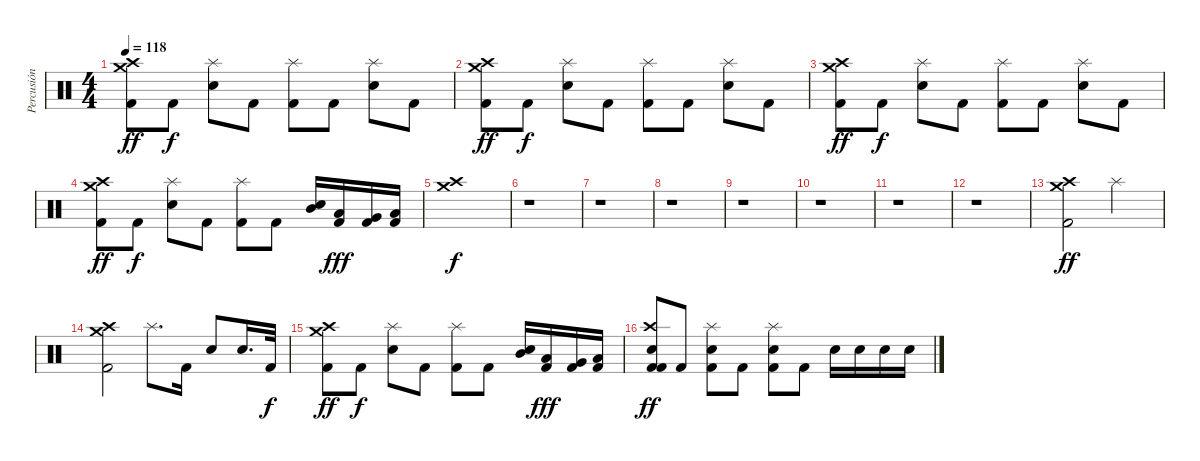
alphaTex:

\track ("Percusión" "Percusión") {instrument percussion}
\staff {score}
\articulation defaults
\ts (4 4)
\tempo 118
\clef neutral
\ks c
("Kick (hit) 2" "Crash medium (hit)" "Crash high (hit)").8{dy ff} "Kick (hit) 2".8{dy f} ("Snare (hit) 2" "Splash (hit)").8 "Kick (hit) 2".8 ("Kick (hit) 2" "Splash (hit)").8 "Kick (hit) 2".8 ("Snare (hit) 2" "Splash (hit)").8 "Kick (hit) 2".8 |
("Kick (hit) 2" "Crash medium (hit)" "Crash high (hit)").8{dy ff} "Kick (hit) 2".8{dy f} ("Snare (hit) 2" "Splash (hit)").8 "Kick (hit) 2".8 ("Kick (hit) 2" "Splash (hit)").8 "Kick (hit) 2".8 ("Snare (hit) 2" "Splash (hit)").8 "Kick (hit) 2".8 |
("Kick (hit) 2" "Crash medium (hit)" "Crash high (hit)").8{dy ff} "Kick (hit) 2".8{dy f} ("Snare (hit) 2" "Splash (hit)").8 "Kick (hit) 2".8 ("Kick (hit) 2" "Splash (hit)").8 "Kick (hit) 2".8 ("Snare (hit) 2" "Splash (hit)").8 "Kick (hit) 2".8 |
("Kick (hit) 2" "Crash medium (hit)" "Crash high (hit)").8{dy ff} "Kick (hit) 2".8{dy f} ("Snare (hit) 2" "Splash (hit)").8 "Kick (hit) 2".8 ("Kick (hit) 2" "Splash (hit)").8 "Kick (hit) 2".8 ("Snare (hit) 2" "Mid Tom (hit)").16 ("Low Tom (hit)" "Kick (hit) 2").16{dy fff} ("Very Low Tom (hit)" "Kick (hit) 2").16 ("Low Floor Tom (hit)" "Kick (hit) 2").16 |
("Crash medium (hit)" "Crash high (hit)").1{dy f} |
r.1 |
r.1 |
r.1 |
r.1 |
r.1 |
r.1 |
r.1 |
("Kick (hit) 2" "Crash medium (hit)" "Crash high (hit)").2{dy ff} "Splash (hit)".2 |
("Kick (hit) 2" "Crash medium (hit)" "Crash high (hit)").2 "Splash (hit)".8{d} "Kick (hit) 2".16 "Snare (hit) 2".8 "Snare (hit) 2".16{d} "Kick (hit) 2".32{dy f} |
("Kick (hit) 2" "Crash medium (hit)" "Crash high (hit)").8{dy ff} "Kick (hit) 2".8{dy f} ("Snare (hit) 2" "Splash (hit)").8 "Kick (hit) 2".8 ("Kick (hit) 2" "Splash (hit)").8 "Kick (hit) 2".8 ("Snare (hit) 2" "Mid Tom (hit)").16 ("Low Tom (hit)" "Kick (hit) 2").16{dy fff} ("Very Low Tom (hit)" "Kick (hit) 2").16 ("Low Floor Tom (hit)" "Kick (hit) 2").16 |
("Kick (hit) 2" "Snare (hit) 2" "Crash high (hit)" "Kick (hit) 2").8{dy ff} "Kick (hit) 2".8 ("Snare (hit) 2" "Splash (hit)" "Kick (hit) 2").8 "Kick (hit) 2".8 ("Snare (hit) 2" "Splash (hit)" "Kick (hit) 2").8 "Kick (hit) 2".8 "Snare (hit) 2".16 "Snare (hit) 2".16 "Snare (hit) 2".16 "Snare (hit) 2".16
